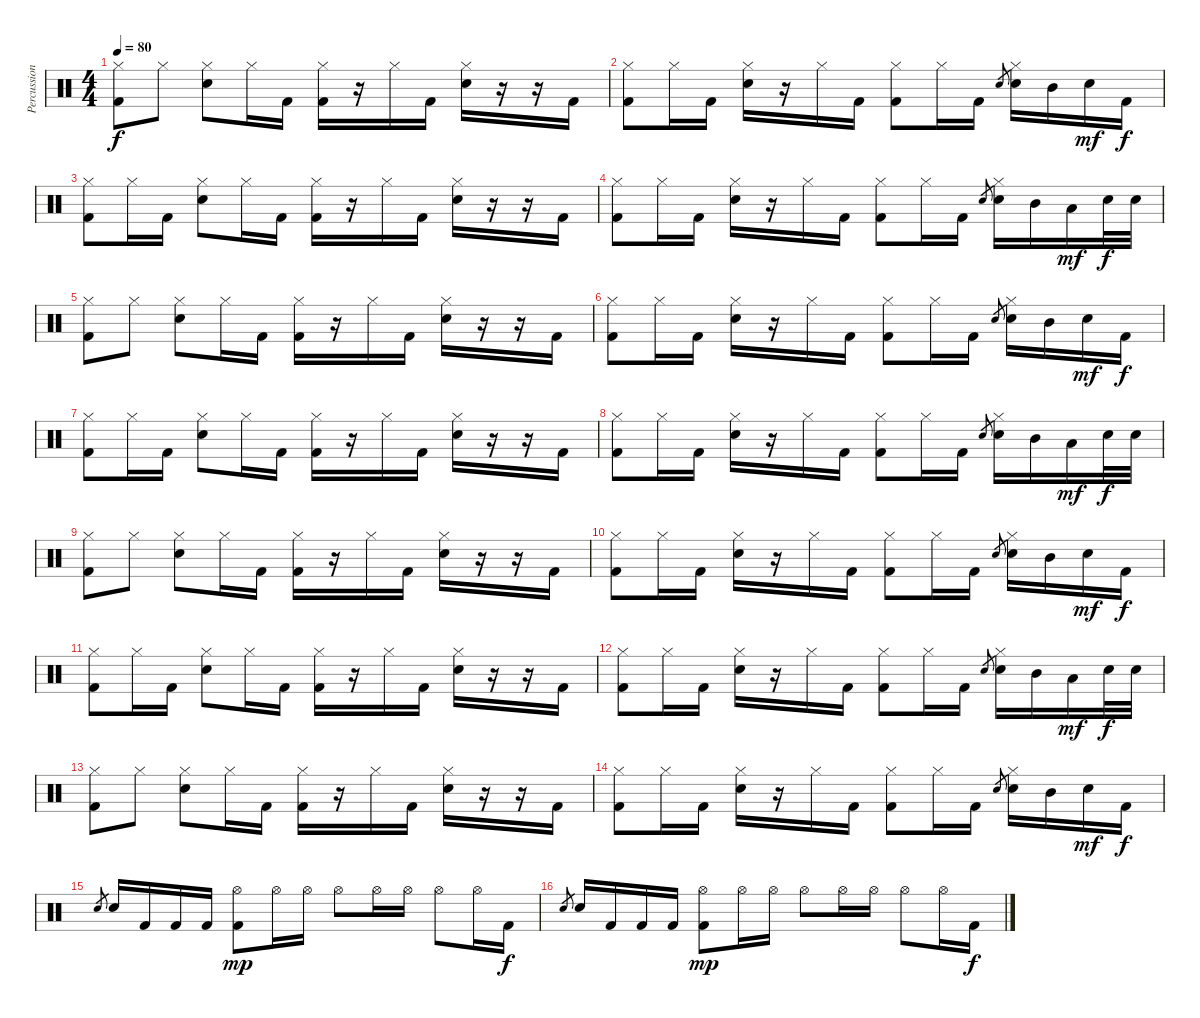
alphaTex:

\track ("Percussion" "Percussion") {instrument percussion}
\staff {score}
\articulation defaults
\ts (4 4)
\tempo 80
\clef neutral
\ks c
("Hi-Hat (closed)" "Kick (hit) 2").8{dy f} "Hi-Hat (closed)".8 ("Hi-Hat (closed)" "Electric Snare (hit)").8 "Hi-Hat (closed)".16 "Kick (hit) 2".16 ("Hi-Hat (closed)" "Kick (hit) 2").16 r.16 "Hi-Hat (closed)".16 "Kick (hit) 2".16 ("Hi-Hat (closed)" "Electric Snare (hit)").16 r.16 r.16 "Kick (hit) 2".16 |
("Hi-Hat (closed)" "Kick (hit) 2").8 "Hi-Hat (closed)".16 "Kick (hit) 2".16 ("Hi-Hat (closed)" "Electric Snare (hit)").16 r.16 "Hi-Hat (closed)".16 "Kick (hit) 2".16 ("Hi-Hat (closed)" "Kick (hit) 2").8 "Hi-Hat (closed)".16 "Kick (hit) 2".16 "Electric Snare (hit)".8{gr} ("Hi-Hat (closed)" "Electric Snare (hit)").16 "Mid Tom (hit)".16 "Electric Snare (hit)".16{dy mf} "Kick (hit) 2".16{dy f} |
("Hi-Hat (closed)" "Kick (hit) 2").8 "Hi-Hat (closed)".16 "Kick (hit) 2".16 ("Hi-Hat (closed)" "Electric Snare (hit)").8 "Hi-Hat (closed)".16 "Kick (hit) 2".16 ("Hi-Hat (closed)" "Kick (hit) 2").16 r.16 "Hi-Hat (closed)".16 "Kick (hit) 2".16 ("Hi-Hat (closed)" "Electric Snare (hit)").16 r.16 r.16 "Kick (hit) 2".16 |
("Hi-Hat (closed)" "Kick (hit) 2").8 "Hi-Hat (closed)".16 "Kick (hit) 2".16 ("Hi-Hat (closed)" "Electric Snare (hit)").16 r.16 "Hi-Hat (closed)".16 "Kick (hit) 2".16 ("Hi-Hat (closed)" "Kick (hit) 2").8 "Hi-Hat (closed)".16 "Kick (hit) 2".16 "Electric Snare (hit)".8{gr} ("Hi-Hat (closed)" "Electric Snare (hit)").16 "Mid Tom (hit)".16 "Low Tom (hit)".16{dy mf} "Electric Snare (hit)".32{dy f} "Electric Snare (hit)".32 |
("Hi-Hat (closed)" "Kick (hit) 2").8 "Hi-Hat (closed)".8 ("Hi-Hat (closed)" "Electric Snare (hit)").8 "Hi-Hat (closed)".16 "Kick (hit) 2".16 ("Hi-Hat (closed)" "Kick (hit) 2").16 r.16 "Hi-Hat (closed)".16 "Kick (hit) 2".16 ("Hi-Hat (closed)" "Electric Snare (hit)").16 r.16 r.16 "Kick (hit) 2".16 |
("Hi-Hat (closed)" "Kick (hit) 2").8 "Hi-Hat (closed)".16 "Kick (hit) 2".16 ("Hi-Hat (closed)" "Electric Snare (hit)").16 r.16 "Hi-Hat (closed)".16 "Kick (hit) 2".16 ("Hi-Hat (closed)" "Kick (hit) 2").8 "Hi-Hat (closed)".16 "Kick (hit) 2".16 "Electric Snare (hit)".8{gr} ("Hi-Hat (closed)" "Electric Snare (hit)").16 "Mid Tom (hit)".16 "Electric Snare (hit)".16{dy mf} "Kick (hit) 2".16{dy f} |
("Hi-Hat (closed)" "Kick (hit) 2").8 "Hi-Hat (closed)".16 "Kick (hit) 2".16 ("Hi-Hat (closed)" "Electric Snare (hit)").8 "Hi-Hat (closed)".16 "Kick (hit) 2".16 ("Hi-Hat (closed)" "Kick (hit) 2").16 r.16 "Hi-Hat (closed)".16 "Kick (hit) 2".16 ("Hi-Hat (closed)" "Electric Snare (hit)").16 r.16 r.16 "Kick (hit) 2".16 |
("Hi-Hat (closed)" "Kick (hit) 2").8 "Hi-Hat (closed)".16 "Kick (hit) 2".16 ("Hi-Hat (closed)" "Electric Snare (hit)").16 r.16 "Hi-Hat (closed)".16 "Kick (hit) 2".16 ("Hi-Hat (closed)" "Kick (hit) 2").8 "Hi-Hat (closed)".16 "Kick (hit) 2".16 "Electric Snare (hit)".8{gr} ("Hi-Hat (closed)" "Electric Snare (hit)").16 "Mid Tom (hit)".16 "Low Tom (hit)".16{dy mf} "Electric Snare (hit)".32{dy f} "Electric Snare (hit)".32 |
("Hi-Hat (closed)" "Kick (hit) 2").8 "Hi-Hat (closed)".8 ("Hi-Hat (closed)" "Electric Snare (hit)").8 "Hi-Hat (closed)".16 "Kick (hit) 2".16 ("Hi-Hat (closed)" "Kick (hit) 2").16 r.16 "Hi-Hat (closed)".16 "Kick (hit) 2".16 ("Hi-Hat (closed)" "Electric Snare (hit)").16 r.16 r.16 "Kick (hit) 2".16 |
("Hi-Hat (closed)" "Kick (hit) 2").8 "Hi-Hat (closed)".16 "Kick (hit) 2".16 ("Hi-Hat (closed)" "Electric Snare (hit)").16 r.16 "Hi-Hat (closed)".16 "Kick (hit) 2".16 ("Hi-Hat (closed)" "Kick (hit) 2").8 "Hi-Hat (closed)".16 "Kick (hit) 2".16 "Electric Snare (hit)".8{gr} ("Hi-Hat (closed)" "Electric Snare (hit)").16 "Mid Tom (hit)".16 "Electric Snare (hit)".16{dy mf} "Kick (hit) 2".16{dy f} |
("Hi-Hat (closed)" "Kick (hit) 2").8 "Hi-Hat (closed)".16 "Kick (hit) 2".16 ("Hi-Hat (closed)" "Electric Snare (hit)").8 "Hi-Hat (closed)".16 "Kick (hit) 2".16 ("Hi-Hat (closed)" "Kick (hit) 2").16 r.16 "Hi-Hat (closed)".16 "Kick (hit) 2".16 ("Hi-Hat (closed)" "Electric Snare (hit)").16 r.16 r.16 "Kick (hit) 2".16 |
("Hi-Hat (closed)" "Kick (hit) 2").8 "Hi-Hat (closed)".16 "Kick (hit) 2".16 ("Hi-Hat (closed)" "Electric Snare (hit)").16 r.16 "Hi-Hat (closed)".16 "Kick (hit) 2".16 ("Hi-Hat (closed)" "Kick (hit) 2").8 "Hi-Hat (closed)".16 "Kick (hit) 2".16 "Electric Snare (hit)".8{gr} ("Hi-Hat (closed)" "Electric Snare (hit)").16 "Mid Tom (hit)".16 "Low Tom (hit)".16{dy mf} "Electric Snare (hit)".32{dy f} "Electric Snare (hit)".32 |
("Hi-Hat (closed)" "Kick (hit) 2").8 "Hi-Hat (closed)".8 ("Hi-Hat (closed)" "Electric Snare (hit)").8 "Hi-Hat (closed)".16 "Kick (hit) 2".16 ("Hi-Hat (closed)" "Kick (hit) 2").16 r.16 "Hi-Hat (closed)".16 "Kick (hit) 2".16 ("Hi-Hat (closed)" "Electric Snare (hit)").16 r.16 r.16 "Kick (hit) 2".16 |
("Hi-Hat (closed)" "Kick (hit) 2").8 "Hi-Hat (closed)".16 "Kick (hit) 2".16 ("Hi-Hat (closed)" "Electric Snare (hit)").16 r.16 "Hi-Hat (closed)".16 "Kick (hit) 2".16 ("Hi-Hat (closed)" "Kick (hit) 2").8 "Hi-Hat (closed)".16 "Kick (hit) 2".16 "Electric Snare (hit)".8{gr} ("Hi-Hat (closed)" "Electric Snare (hit)").16 "Mid Tom (hit)".16 "Electric Snare (hit)".16{dy mf} "Kick (hit) 2".16{dy f} |
"Electric Snare (hit)".8{gr} "Electric Snare (hit)".16 "Kick (hit) 2".16 "Kick (hit) 2".16 "Kick (hit) 2".16 ("Hi-Hat (open)" "Kick (hit) 2").8{dy mp} "Hi-Hat (open)".16 "Hi-Hat (open)".16 "Hi-Hat (open)".8 "Hi-Hat (open)".16 "Hi-Hat (open)".16 "Hi-Hat (open)".8 "Hi-Hat (open)".16 "Kick (hit) 2".16{dy f} |
"Electric Snare (hit)".8{gr} "Electric Snare (hit)".16 "Kick (hit) 2".16 "Kick (hit) 2".16 "Kick (hit) 2".16 ("Hi-Hat (open)" "Kick (hit) 2").8{dy mp} "Hi-Hat (open)".16 "Hi-Hat (open)".16 "Hi-Hat (open)".8 "Hi-Hat (open)".16 "Hi-Hat (open)".16 "Hi-Hat (open)".8 "Hi-Hat (open)".16 "Kick (hit) 2".16{dy f}
